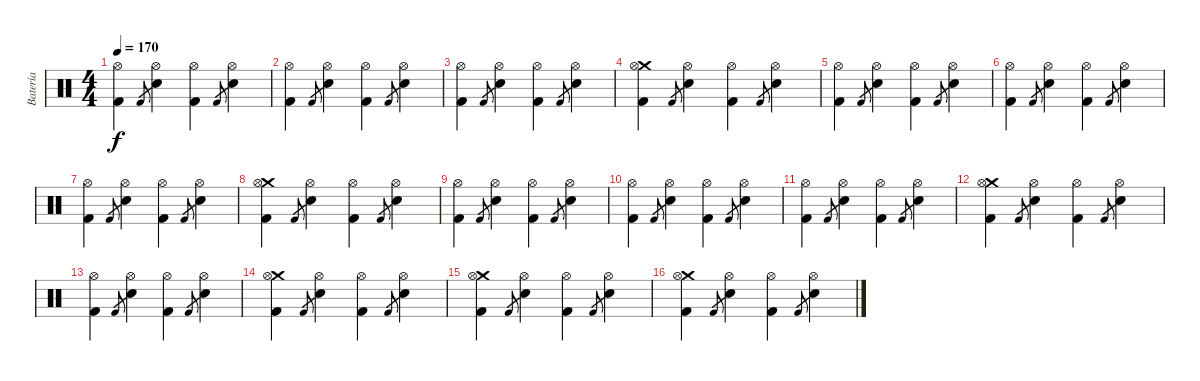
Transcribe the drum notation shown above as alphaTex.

\track ("Batería" "Batería") {instrument percussion}
\staff {score}
\articulation defaults
\ts (4 4)
\tempo 170
\clef neutral
\ks c
("Hi-Hat (open)" "Kick (hit) 2").4{dy f} "Kick (hit) 2".8{gr} ("Hi-Hat (open)" "Snare (hit) 2").4 ("Hi-Hat (open)" "Kick (hit) 2").4 "Kick (hit) 2".8{gr} ("Hi-Hat (open)" "Snare (hit) 2").4 |
("Hi-Hat (open)" "Kick (hit) 2").4 "Kick (hit) 2".8{gr} ("Hi-Hat (open)" "Snare (hit) 2").4 ("Hi-Hat (open)" "Kick (hit) 2").4 "Kick (hit) 2".8{gr} ("Hi-Hat (open)" "Snare (hit) 2").4 |
("Hi-Hat (open)" "Kick (hit) 2").4 "Kick (hit) 2".8{gr} ("Hi-Hat (open)" "Snare (hit) 2").4 ("Hi-Hat (open)" "Kick (hit) 2").4 "Kick (hit) 2".8{gr} ("Hi-Hat (open)" "Snare (hit) 2").4 |
("Crash medium (hit)" "Hi-Hat (open)" "Kick (hit) 2").4 "Kick (hit) 2".8{gr} ("Hi-Hat (open)" "Snare (hit) 2").4 ("Hi-Hat (open)" "Kick (hit) 2").4 "Kick (hit) 2".8{gr} ("Hi-Hat (open)" "Snare (hit) 2").4 |
("Hi-Hat (open)" "Kick (hit) 2").4 "Kick (hit) 2".8{gr} ("Hi-Hat (open)" "Snare (hit) 2").4 ("Hi-Hat (open)" "Kick (hit) 2").4 "Kick (hit) 2".8{gr} ("Hi-Hat (open)" "Snare (hit) 2").4 |
("Hi-Hat (open)" "Kick (hit) 2").4 "Kick (hit) 2".8{gr} ("Hi-Hat (open)" "Snare (hit) 2").4 ("Hi-Hat (open)" "Kick (hit) 2").4 "Kick (hit) 2".8{gr} ("Hi-Hat (open)" "Snare (hit) 2").4 |
("Hi-Hat (open)" "Kick (hit) 2").4 "Kick (hit) 2".8{gr} ("Hi-Hat (open)" "Snare (hit) 2").4 ("Hi-Hat (open)" "Kick (hit) 2").4 "Kick (hit) 2".8{gr} ("Hi-Hat (open)" "Snare (hit) 2").4 |
("Crash medium (hit)" "Hi-Hat (open)" "Kick (hit) 2").4 "Kick (hit) 2".8{gr} ("Hi-Hat (open)" "Snare (hit) 2").4 ("Hi-Hat (open)" "Kick (hit) 2").4 "Kick (hit) 2".8{gr} ("Hi-Hat (open)" "Snare (hit) 2").4 |
("Hi-Hat (open)" "Kick (hit) 2").4 "Kick (hit) 2".8{gr} ("Hi-Hat (open)" "Snare (hit) 2").4 ("Hi-Hat (open)" "Kick (hit) 2").4 "Kick (hit) 2".8{gr} ("Hi-Hat (open)" "Snare (hit) 2").4 |
("Hi-Hat (open)" "Kick (hit) 2").4 "Kick (hit) 2".8{gr} ("Hi-Hat (open)" "Snare (hit) 2").4 ("Hi-Hat (open)" "Kick (hit) 2").4 "Kick (hit) 2".8{gr} ("Hi-Hat (open)" "Snare (hit) 2").4 |
("Hi-Hat (open)" "Kick (hit) 2").4 "Kick (hit) 2".8{gr} ("Hi-Hat (open)" "Snare (hit) 2").4 ("Hi-Hat (open)" "Kick (hit) 2").4 "Kick (hit) 2".8{gr} ("Hi-Hat (open)" "Snare (hit) 2").4 |
("Crash medium (hit)" "Hi-Hat (open)" "Kick (hit) 2").4 "Kick (hit) 2".8{gr} ("Hi-Hat (open)" "Snare (hit) 2").4 ("Hi-Hat (open)" "Kick (hit) 2").4 "Kick (hit) 2".8{gr} ("Hi-Hat (open)" "Snare (hit) 2").4 |
("Hi-Hat (open)" "Kick (hit) 2").4 "Kick (hit) 2".8{gr} ("Hi-Hat (open)" "Snare (hit) 2").4 ("Hi-Hat (open)" "Kick (hit) 2").4 "Kick (hit) 2".8{gr} ("Hi-Hat (open)" "Snare (hit) 2").4 |
("Crash medium (hit)" "Hi-Hat (open)" "Kick (hit) 2").4 "Kick (hit) 2".8{gr} ("Hi-Hat (open)" "Snare (hit) 2").4 ("Hi-Hat (open)" "Kick (hit) 2").4 "Kick (hit) 2".8{gr} ("Hi-Hat (open)" "Snare (hit) 2").4 |
("Crash medium (hit)" "Hi-Hat (open)" "Kick (hit) 2").4 "Kick (hit) 2".8{gr} ("Hi-Hat (open)" "Snare (hit) 2").4 ("Hi-Hat (open)" "Kick (hit) 2").4 "Kick (hit) 2".8{gr} ("Hi-Hat (open)" "Snare (hit) 2").4 |
("Crash medium (hit)" "Hi-Hat (open)" "Kick (hit) 2").4 "Kick (hit) 2".8{gr} ("Hi-Hat (open)" "Snare (hit) 2").4 ("Hi-Hat (open)" "Kick (hit) 2").4 "Kick (hit) 2".8{gr} ("Hi-Hat (open)" "Snare (hit) 2").4
